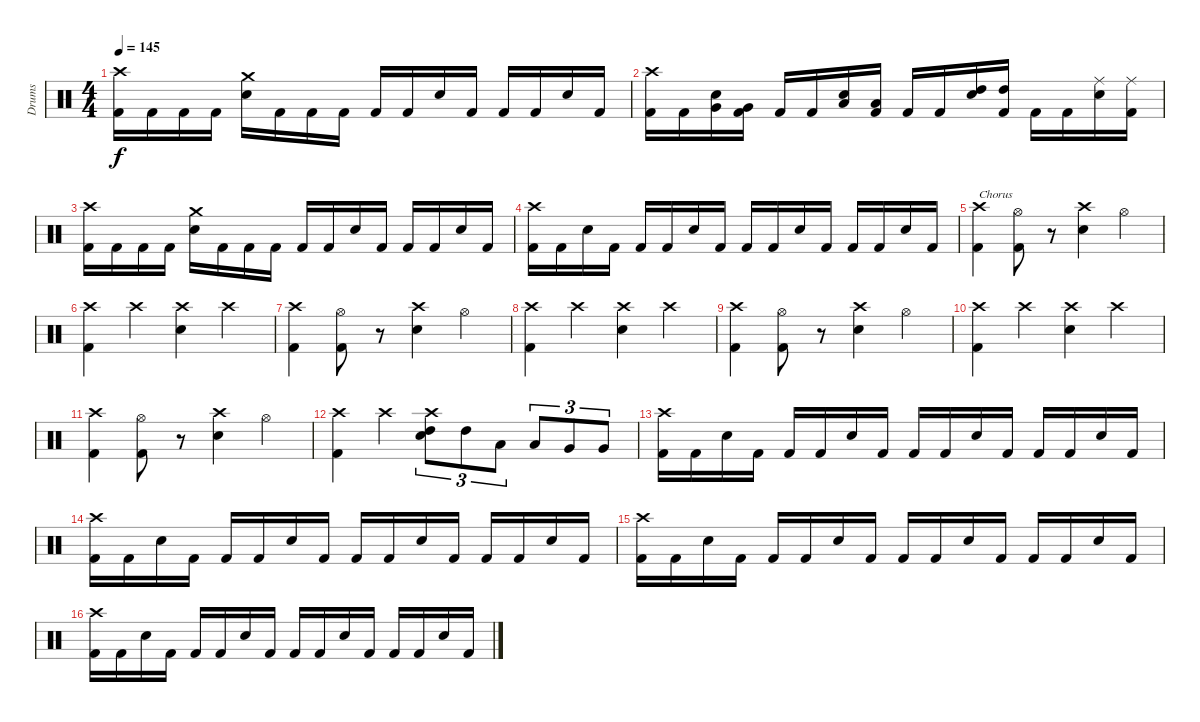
\track ("Drums" "Drums") {instrument percussion}
\staff {score}
\articulation defaults
\ts (4 4)
\tempo 145
\clef neutral
\ks c
("Crash high (hit)" "Kick (hit) 2").16{dy f} "Kick (hit) 2".16 "Kick (hit) 2".16 "Kick (hit) 2".16 ("Crash medium (hit)" "Snare (hit) 2").16 "Kick (hit) 2".16 "Kick (hit) 2".16 "Kick (hit) 2".16 "Kick (hit) 2".16 "Kick (hit) 2".16 "Snare (hit) 2".16 "Kick (hit) 2".16 "Kick (hit) 2".16 "Kick (hit) 2".16 "Snare (hit) 2".16 "Kick (hit) 2".16 |
("Crash high (hit)" "Kick (hit) 2").16 "Kick (hit) 2".16 ("Very Low Tom (hit)" "Snare (hit) 2").16 ("Very Low Tom (hit)" "Kick (hit) 2").16 "Kick (hit) 2".16 "Kick (hit) 2".16 ("Low Tom (hit)" "Snare (hit) 2").16 ("Low Tom (hit)" "Kick (hit) 2").16 "Kick (hit) 2".16 "Kick (hit) 2".16 ("High Tom (hit)" "Snare (hit) 2").16 ("High Tom (hit)" "Kick (hit) 2").16 "Kick (hit) 2".16 "Kick (hit) 2".16 ("Ride (middle)" "Snare (hit) 2").16 ("Ride (middle)" "Kick (hit) 2").16 |
("Crash high (hit)" "Kick (hit) 2").16 "Kick (hit) 2".16 "Kick (hit) 2".16 "Kick (hit) 2".16 ("Crash medium (hit)" "Snare (hit) 2").16 "Kick (hit) 2".16 "Kick (hit) 2".16 "Kick (hit) 2".16 "Kick (hit) 2".16 "Kick (hit) 2".16 "Snare (hit) 2".16 "Kick (hit) 2".16 "Kick (hit) 2".16 "Kick (hit) 2".16 "Snare (hit) 2".16 "Kick (hit) 2".16 |
("Crash high (hit)" "Kick (hit) 2").16 "Kick (hit) 2".16 "Snare (hit) 2".16 "Kick (hit) 2".16 "Kick (hit) 2".16 "Kick (hit) 2".16 "Snare (hit) 2".16 "Kick (hit) 2".16 "Kick (hit) 2".16 "Kick (hit) 2".16 "Snare (hit) 2".16 "Kick (hit) 2".16 "Kick (hit) 2".16 "Kick (hit) 2".16 "Snare (hit) 2".16 "Kick (hit) 2".16 |
("Crash high (hit)" "Kick (hit) 2").4{txt "Chorus"} ("Hi-Hat (open)" "Kick (hit) 2").8 r.8 ("Crash high (hit)" "Snare (hit) 2").4 "Hi-Hat (open)".4 |
("Crash high (hit)" "Kick (hit) 2").4 "Crash high (hit)".4 ("Crash high (hit)" "Snare (hit) 2").4 "Crash high (hit)".4 |
("Crash high (hit)" "Kick (hit) 2").4 ("Hi-Hat (open)" "Kick (hit) 2").8 r.8 ("Crash high (hit)" "Snare (hit) 2").4 "Hi-Hat (open)".4 |
("Crash high (hit)" "Kick (hit) 2").4 "Crash high (hit)".4 ("Crash high (hit)" "Snare (hit) 2").4 "Crash high (hit)".4 |
("Crash high (hit)" "Kick (hit) 2").4 ("Hi-Hat (open)" "Kick (hit) 2").8 r.8 ("Crash high (hit)" "Snare (hit) 2").4 "Hi-Hat (open)".4 |
("Crash high (hit)" "Kick (hit) 2").4 "Crash high (hit)".4 ("Crash high (hit)" "Snare (hit) 2").4 "Crash high (hit)".4 |
("Crash high (hit)" "Kick (hit) 2").4 ("Hi-Hat (open)" "Kick (hit) 2").8 r.8 ("Crash high (hit)" "Snare (hit) 2").4 "Hi-Hat (open)".4 |
("Crash high (hit)" "Kick (hit) 2").4 "Crash high (hit)".4 ("High Tom (hit)" "Crash high (hit)" "Snare (hit) 2").8{tu (3 2)} "High Tom (hit)".8{tu (3 2)} "Low Tom (hit)".8{tu (3 2)} "Low Tom (hit)".8{tu (3 2)} "Very Low Tom (hit)".8{tu (3 2)} "Very Low Tom (hit)".8{tu (3 2)} |
("Crash high (hit)" "Kick (hit) 2").16 "Kick (hit) 2".16 "Snare (hit) 2".16 "Kick (hit) 2".16 "Kick (hit) 2".16 "Kick (hit) 2".16 "Snare (hit) 2".16 "Kick (hit) 2".16 "Kick (hit) 2".16 "Kick (hit) 2".16 "Snare (hit) 2".16 "Kick (hit) 2".16 "Kick (hit) 2".16 "Kick (hit) 2".16 "Snare (hit) 2".16 "Kick (hit) 2".16 |
("Crash high (hit)" "Kick (hit) 2").16 "Kick (hit) 2".16 "Snare (hit) 2".16 "Kick (hit) 2".16 "Kick (hit) 2".16 "Kick (hit) 2".16 "Snare (hit) 2".16 "Kick (hit) 2".16 "Kick (hit) 2".16 "Kick (hit) 2".16 "Snare (hit) 2".16 "Kick (hit) 2".16 "Kick (hit) 2".16 "Kick (hit) 2".16 "Snare (hit) 2".16 "Kick (hit) 2".16 |
("Crash high (hit)" "Kick (hit) 2").16 "Kick (hit) 2".16 "Snare (hit) 2".16 "Kick (hit) 2".16 "Kick (hit) 2".16 "Kick (hit) 2".16 "Snare (hit) 2".16 "Kick (hit) 2".16 "Kick (hit) 2".16 "Kick (hit) 2".16 "Snare (hit) 2".16 "Kick (hit) 2".16 "Kick (hit) 2".16 "Kick (hit) 2".16 "Snare (hit) 2".16 "Kick (hit) 2".16 |
("Crash high (hit)" "Kick (hit) 2").16 "Kick (hit) 2".16 "Snare (hit) 2".16 "Kick (hit) 2".16 "Kick (hit) 2".16 "Kick (hit) 2".16 "Snare (hit) 2".16 "Kick (hit) 2".16 "Kick (hit) 2".16 "Kick (hit) 2".16 "Snare (hit) 2".16 "Kick (hit) 2".16 "Kick (hit) 2".16 "Kick (hit) 2".16 "Snare (hit) 2".16 "Kick (hit) 2".16
